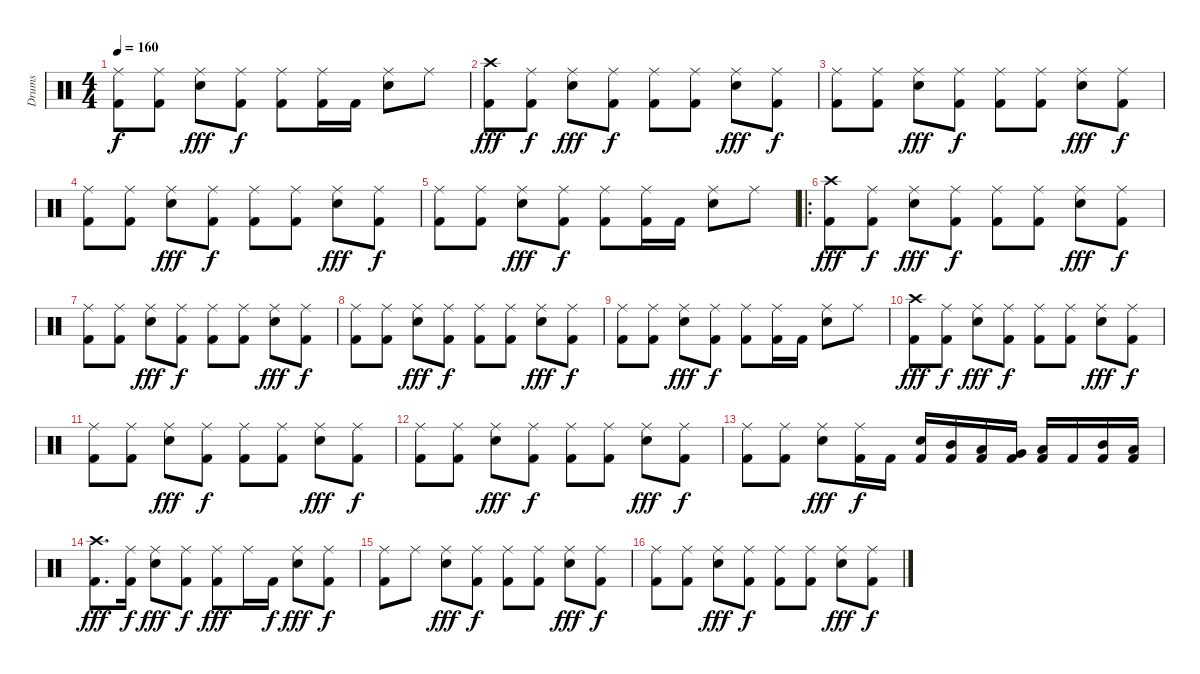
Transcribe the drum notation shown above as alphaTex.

\track ("Drums" "Drums") {instrument percussion}
\staff {score}
\articulation defaults
\ts (4 4)
\tempo 160
\clef neutral
\ks c
("Kick (hit) 2" "Ride (middle)").8{dy f} ("Kick (hit) 2" "Ride (middle)").8 ("Snare (hit) 2" "Ride (middle)").8{dy fff} ("Kick (hit) 2" "Ride (middle)").8{dy f} ("Kick (hit) 2" "Ride (middle)").8 ("Kick (hit) 2" "Ride (middle)").16 "Kick (hit) 2".16 ("Snare (hit) 2" "Ride (middle)").8 "Ride (middle)".8 |
("Kick (hit) 2" "Crash high (hit)").8{dy fff} ("Kick (hit) 2" "Ride (middle)").8{dy f} ("Snare (hit) 2" "Ride (middle)").8{dy fff} ("Kick (hit) 2" "Ride (middle)").8{dy f} ("Kick (hit) 2" "Ride (middle)").8 ("Kick (hit) 2" "Ride (middle)").8 ("Snare (hit) 2" "Ride (middle)").8{dy fff} ("Kick (hit) 2" "Ride (middle)").8{dy f} |
("Kick (hit) 2" "Ride (middle)").8 ("Kick (hit) 2" "Ride (middle)").8 ("Snare (hit) 2" "Ride (middle)").8{dy fff} ("Kick (hit) 2" "Ride (middle)").8{dy f} ("Kick (hit) 2" "Ride (middle)").8 ("Kick (hit) 2" "Ride (middle)").8 ("Snare (hit) 2" "Ride (middle)").8{dy fff} ("Kick (hit) 2" "Ride (middle)").8{dy f} |
("Kick (hit) 2" "Ride (middle)").8 ("Kick (hit) 2" "Ride (middle)").8 ("Snare (hit) 2" "Ride (middle)").8{dy fff} ("Kick (hit) 2" "Ride (middle)").8{dy f} ("Kick (hit) 2" "Ride (middle)").8 ("Kick (hit) 2" "Ride (middle)").8 ("Snare (hit) 2" "Ride (middle)").8{dy fff} ("Kick (hit) 2" "Ride (middle)").8{dy f} |
("Kick (hit) 2" "Ride (middle)").8 ("Kick (hit) 2" "Ride (middle)").8 ("Snare (hit) 2" "Ride (middle)").8{dy fff} ("Kick (hit) 2" "Ride (middle)").8{dy f} ("Kick (hit) 2" "Ride (middle)").8 ("Kick (hit) 2" "Ride (middle)").16 "Kick (hit) 2".16 ("Snare (hit) 2" "Ride (middle)").8 "Ride (middle)".8 |
\ro
("Kick (hit) 2" "Crash high (hit)").8{dy fff} ("Kick (hit) 2" "Ride (middle)").8{dy f} ("Snare (hit) 2" "Ride (middle)").8{dy fff} ("Kick (hit) 2" "Ride (middle)").8{dy f} ("Kick (hit) 2" "Ride (middle)").8 ("Kick (hit) 2" "Ride (middle)").8 ("Snare (hit) 2" "Ride (middle)").8{dy fff} ("Kick (hit) 2" "Ride (middle)").8{dy f} |
("Kick (hit) 2" "Ride (middle)").8 ("Kick (hit) 2" "Ride (middle)").8 ("Snare (hit) 2" "Ride (middle)").8{dy fff} ("Kick (hit) 2" "Ride (middle)").8{dy f} ("Kick (hit) 2" "Ride (middle)").8 ("Kick (hit) 2" "Ride (middle)").8 ("Snare (hit) 2" "Ride (middle)").8{dy fff} ("Kick (hit) 2" "Ride (middle)").8{dy f} |
("Kick (hit) 2" "Ride (middle)").8 ("Kick (hit) 2" "Ride (middle)").8 ("Snare (hit) 2" "Ride (middle)").8{dy fff} ("Kick (hit) 2" "Ride (middle)").8{dy f} ("Kick (hit) 2" "Ride (middle)").8 ("Kick (hit) 2" "Ride (middle)").8 ("Snare (hit) 2" "Ride (middle)").8{dy fff} ("Kick (hit) 2" "Ride (middle)").8{dy f} |
("Kick (hit) 2" "Ride (middle)").8 ("Kick (hit) 2" "Ride (middle)").8 ("Snare (hit) 2" "Ride (middle)").8{dy fff} ("Kick (hit) 2" "Ride (middle)").8{dy f} ("Kick (hit) 2" "Ride (middle)").8 ("Kick (hit) 2" "Ride (middle)").16 "Kick (hit) 2".16 ("Snare (hit) 2" "Ride (middle)").8 "Ride (middle)".8 |
("Kick (hit) 2" "Crash high (hit)").8{dy fff} ("Kick (hit) 2" "Ride (middle)").8{dy f} ("Snare (hit) 2" "Ride (middle)").8{dy fff} ("Kick (hit) 2" "Ride (middle)").8{dy f} ("Kick (hit) 2" "Ride (middle)").8 ("Kick (hit) 2" "Ride (middle)").8 ("Snare (hit) 2" "Ride (middle)").8{dy fff} ("Kick (hit) 2" "Ride (middle)").8{dy f} |
("Kick (hit) 2" "Ride (middle)").8 ("Kick (hit) 2" "Ride (middle)").8 ("Snare (hit) 2" "Ride (middle)").8{dy fff} ("Kick (hit) 2" "Ride (middle)").8{dy f} ("Kick (hit) 2" "Ride (middle)").8 ("Kick (hit) 2" "Ride (middle)").8 ("Snare (hit) 2" "Ride (middle)").8{dy fff} ("Kick (hit) 2" "Ride (middle)").8{dy f} |
("Kick (hit) 2" "Ride (middle)").8 ("Kick (hit) 2" "Ride (middle)").8 ("Snare (hit) 2" "Ride (middle)").8{dy fff} ("Kick (hit) 2" "Ride (middle)").8{dy f} ("Kick (hit) 2" "Ride (middle)").8 ("Kick (hit) 2" "Ride (middle)").8 ("Snare (hit) 2" "Ride (middle)").8{dy fff} ("Kick (hit) 2" "Ride (middle)").8{dy f} |
("Kick (hit) 2" "Ride (middle)").8 ("Kick (hit) 2" "Ride (middle)").8 ("Snare (hit) 2" "Ride (middle)").8{dy fff} ("Kick (hit) 2" "Ride (middle)").16{dy f} "Kick (hit) 2".16 ("Kick (hit) 2" "Snare (hit) 2").16 ("Kick (hit) 2" "Mid Tom (hit)").16 ("Kick (hit) 2" "Low Tom (hit)").16 ("Kick (hit) 2" "Very Low Tom (hit)").16 ("Kick (hit) 2" "Low Floor Tom (hit)").16 "Kick (hit) 2".16 ("Kick (hit) 2" "Mid Tom (hit)").16 ("Kick (hit) 2" "Low Tom (hit)").16 |
("Kick (hit) 2" "Crash high (hit)").8{d dy fff} ("Kick (hit) 2" "Ride (middle)").16{dy f} ("Snare (hit) 2" "Ride (middle)").8{dy fff} ("Kick (hit) 2" "Ride (middle)").8{dy f} ("Kick (hit) 2" "Ride (middle)").8{dy fff} "Ride (middle)".16 "Kick (hit) 2".16{dy f} ("Snare (hit) 2" "Ride (middle)").8{dy fff} ("Kick (hit) 2" "Ride (middle)").8{dy f} |
("Kick (hit) 2" "Ride (middle)").8 "Ride (middle)".8 ("Snare (hit) 2" "Ride (middle)").8{dy fff} ("Kick (hit) 2" "Ride (middle)").8{dy f} ("Kick (hit) 2" "Ride (middle)").8 ("Kick (hit) 2" "Ride (middle)").8 ("Snare (hit) 2" "Ride (middle)").8{dy fff} ("Kick (hit) 2" "Ride (middle)").8{dy f} |
("Kick (hit) 2" "Ride (middle)").8 ("Kick (hit) 2" "Ride (middle)").8 ("Snare (hit) 2" "Ride (middle)").8{dy fff} ("Kick (hit) 2" "Ride (middle)").8{dy f} ("Kick (hit) 2" "Ride (middle)").8 ("Kick (hit) 2" "Ride (middle)").8 ("Snare (hit) 2" "Ride (middle)").8{dy fff} ("Kick (hit) 2" "Ride (middle)").8{dy f}
